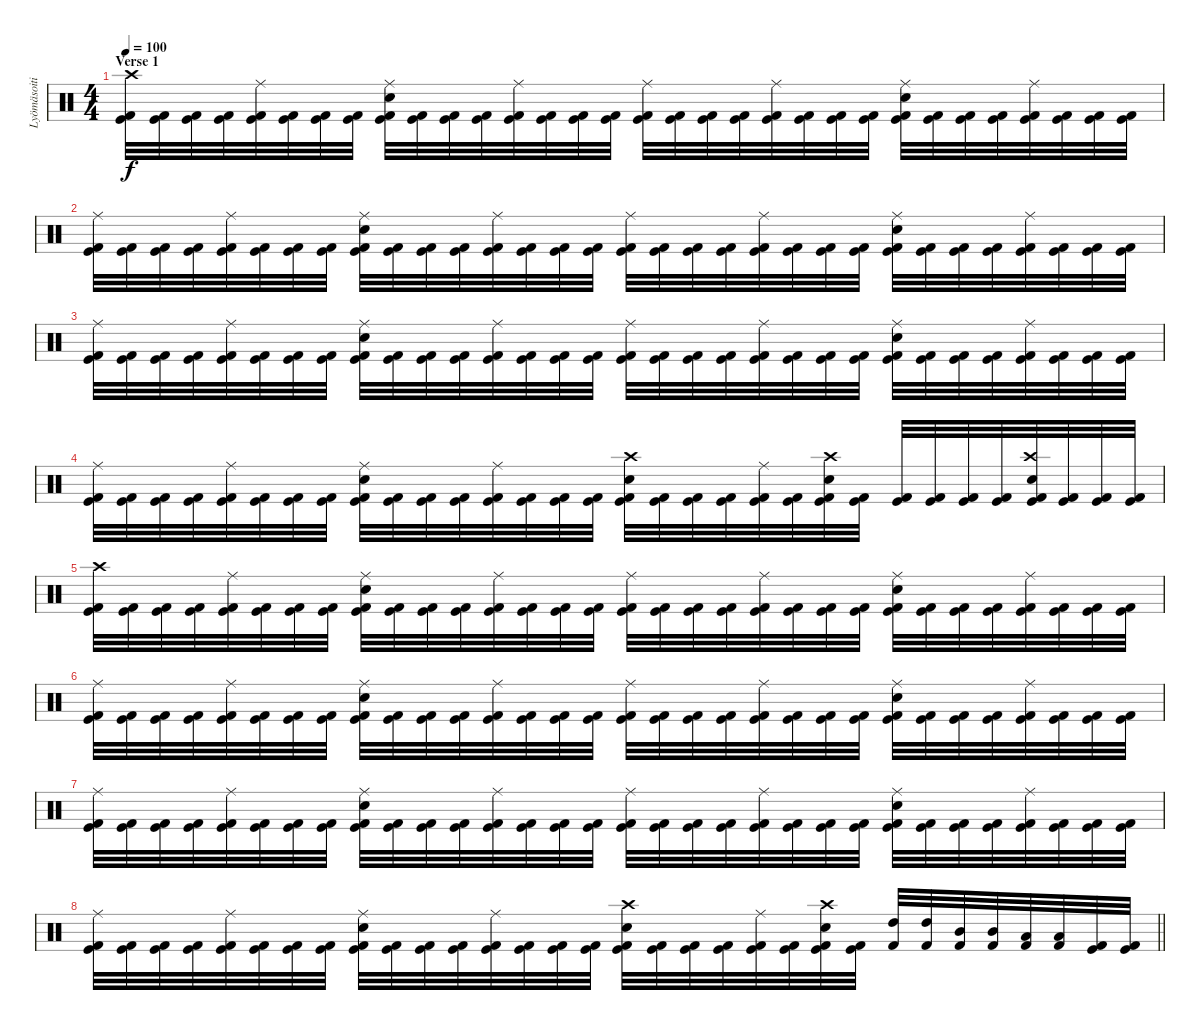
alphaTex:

\track ("Lyömäsoitin" "Lyömäsoiti") {instrument percussion}
\staff {score}
\articulation defaults
\ts (4 4)
\section ("" "Verse 1")
\tempo 100
\clef neutral
\ks c
("Kick (hit) 2" "Crash high (hit)" "Kick (hit)").32{dy f} ("Kick (hit) 2" "Kick (hit)").32 ("Kick (hit) 2" "Kick (hit)").32 ("Kick (hit) 2" "Kick (hit)").32 ("Kick (hit) 2" "Ride (middle)" "Kick (hit)").32 ("Kick (hit) 2" "Kick (hit)").32 ("Kick (hit) 2" "Kick (hit)").32 ("Kick (hit) 2" "Kick (hit)").32 ("Kick (hit) 2" "Ride (middle)" "Electric Snare (hit)" "Kick (hit)").32 ("Kick (hit) 2" "Kick (hit)").32 ("Kick (hit) 2" "Kick (hit)").32 ("Kick (hit) 2" "Kick (hit)").32 ("Kick (hit) 2" "Ride (middle)" "Kick (hit)").32 ("Kick (hit) 2" "Kick (hit)").32 ("Kick (hit) 2" "Kick (hit)").32 ("Kick (hit) 2" "Kick (hit)").32 ("Kick (hit) 2" "Ride (middle)" "Kick (hit)").32 ("Kick (hit) 2" "Kick (hit)").32 ("Kick (hit) 2" "Kick (hit)").32 ("Kick (hit) 2" "Kick (hit)").32 ("Kick (hit) 2" "Ride (middle)" "Kick (hit)").32 ("Kick (hit) 2" "Kick (hit)").32 ("Kick (hit) 2" "Kick (hit)").32 ("Kick (hit) 2" "Kick (hit)").32 ("Kick (hit) 2" "Ride (middle)" "Electric Snare (hit)" "Kick (hit)").32 ("Kick (hit) 2" "Kick (hit)").32 ("Kick (hit) 2" "Kick (hit)").32 ("Kick (hit) 2" "Kick (hit)").32 ("Kick (hit) 2" "Ride (middle)" "Kick (hit)").32 ("Kick (hit) 2" "Kick (hit)").32 ("Kick (hit) 2" "Kick (hit)").32 ("Kick (hit) 2" "Kick (hit)").32 |
("Kick (hit) 2" "Ride (middle)" "Kick (hit)").32 ("Kick (hit) 2" "Kick (hit)").32 ("Kick (hit) 2" "Kick (hit)").32 ("Kick (hit) 2" "Kick (hit)").32 ("Kick (hit) 2" "Ride (middle)" "Kick (hit)").32 ("Kick (hit) 2" "Kick (hit)").32 ("Kick (hit) 2" "Kick (hit)").32 ("Kick (hit) 2" "Kick (hit)").32 ("Kick (hit) 2" "Ride (middle)" "Electric Snare (hit)" "Kick (hit)").32 ("Kick (hit) 2" "Kick (hit)").32 ("Kick (hit) 2" "Kick (hit)").32 ("Kick (hit) 2" "Kick (hit)").32 ("Kick (hit) 2" "Ride (middle)" "Kick (hit)").32 ("Kick (hit) 2" "Kick (hit)").32 ("Kick (hit) 2" "Kick (hit)").32 ("Kick (hit) 2" "Kick (hit)").32 ("Kick (hit) 2" "Ride (middle)" "Kick (hit)").32 ("Kick (hit) 2" "Kick (hit)").32 ("Kick (hit) 2" "Kick (hit)").32 ("Kick (hit) 2" "Kick (hit)").32 ("Kick (hit) 2" "Ride (middle)" "Kick (hit)").32 ("Kick (hit) 2" "Kick (hit)").32 ("Kick (hit) 2" "Kick (hit)").32 ("Kick (hit) 2" "Kick (hit)").32 ("Kick (hit) 2" "Ride (middle)" "Electric Snare (hit)" "Kick (hit)").32 ("Kick (hit) 2" "Kick (hit)").32 ("Kick (hit) 2" "Kick (hit)").32 ("Kick (hit) 2" "Kick (hit)").32 ("Kick (hit) 2" "Ride (middle)" "Kick (hit)").32 ("Kick (hit) 2" "Kick (hit)").32 ("Kick (hit) 2" "Kick (hit)").32 ("Kick (hit) 2" "Kick (hit)").32 |
("Kick (hit) 2" "Ride (middle)" "Kick (hit)").32 ("Kick (hit) 2" "Kick (hit)").32 ("Kick (hit) 2" "Kick (hit)").32 ("Kick (hit) 2" "Kick (hit)").32 ("Kick (hit) 2" "Ride (middle)" "Kick (hit)").32 ("Kick (hit) 2" "Kick (hit)").32 ("Kick (hit) 2" "Kick (hit)").32 ("Kick (hit) 2" "Kick (hit)").32 ("Kick (hit) 2" "Ride (middle)" "Electric Snare (hit)" "Kick (hit)").32 ("Kick (hit) 2" "Kick (hit)").32 ("Kick (hit) 2" "Kick (hit)").32 ("Kick (hit) 2" "Kick (hit)").32 ("Kick (hit) 2" "Ride (middle)" "Kick (hit)").32 ("Kick (hit) 2" "Kick (hit)").32 ("Kick (hit) 2" "Kick (hit)").32 ("Kick (hit) 2" "Kick (hit)").32 ("Kick (hit) 2" "Ride (middle)" "Kick (hit)").32 ("Kick (hit) 2" "Kick (hit)").32 ("Kick (hit) 2" "Kick (hit)").32 ("Kick (hit) 2" "Kick (hit)").32 ("Kick (hit) 2" "Ride (middle)" "Kick (hit)").32 ("Kick (hit) 2" "Kick (hit)").32 ("Kick (hit) 2" "Kick (hit)").32 ("Kick (hit) 2" "Kick (hit)").32 ("Kick (hit) 2" "Ride (middle)" "Electric Snare (hit)" "Kick (hit)").32 ("Kick (hit) 2" "Kick (hit)").32 ("Kick (hit) 2" "Kick (hit)").32 ("Kick (hit) 2" "Kick (hit)").32 ("Kick (hit) 2" "Ride (middle)" "Kick (hit)").32 ("Kick (hit) 2" "Kick (hit)").32 ("Kick (hit) 2" "Kick (hit)").32 ("Kick (hit) 2" "Kick (hit)").32 |
("Kick (hit) 2" "Ride (middle)" "Kick (hit)").32 ("Kick (hit) 2" "Kick (hit)").32 ("Kick (hit) 2" "Kick (hit)").32 ("Kick (hit) 2" "Kick (hit)").32 ("Kick (hit) 2" "Ride (middle)" "Kick (hit)").32 ("Kick (hit) 2" "Kick (hit)").32 ("Kick (hit) 2" "Kick (hit)").32 ("Kick (hit) 2" "Kick (hit)").32 ("Kick (hit) 2" "Ride (middle)" "Electric Snare (hit)" "Kick (hit)").32 ("Kick (hit) 2" "Kick (hit)").32 ("Kick (hit) 2" "Kick (hit)").32 ("Kick (hit) 2" "Kick (hit)").32 ("Kick (hit) 2" "Ride (middle)" "Kick (hit)").32 ("Kick (hit) 2" "Kick (hit)").32 ("Kick (hit) 2" "Kick (hit)").32 ("Kick (hit) 2" "Kick (hit)").32 ("Kick (hit) 2" "Crash high (hit)" "Electric Snare (hit)" "Kick (hit)").32 ("Kick (hit) 2" "Kick (hit)").32 ("Kick (hit) 2" "Kick (hit)").32 ("Kick (hit) 2" "Kick (hit)").32 ("Kick (hit) 2" "Ride (middle)" "Kick (hit)").32 ("Kick (hit) 2" "Kick (hit)").32 ("Kick (hit) 2" "Crash high (hit)" "Electric Snare (hit)" "Kick (hit)").32 ("Kick (hit) 2" "Kick (hit)").32 ("Kick (hit) 2" "Kick (hit)").32 ("Kick (hit) 2" "Kick (hit)").32 ("Kick (hit) 2" "Kick (hit)").32 ("Kick (hit) 2" "Kick (hit)").32 ("Kick (hit) 2" "Electric Snare (hit)" "Crash high (hit)" "Kick (hit)").32 ("Kick (hit) 2" "Kick (hit)").32 ("Kick (hit) 2" "Kick (hit)").32 ("Kick (hit) 2" "Kick (hit)").32 |
("Kick (hit) 2" "Crash high (hit)" "Kick (hit)").32 ("Kick (hit) 2" "Kick (hit)").32 ("Kick (hit) 2" "Kick (hit)").32 ("Kick (hit) 2" "Kick (hit)").32 ("Kick (hit) 2" "Ride (middle)" "Kick (hit)").32 ("Kick (hit) 2" "Kick (hit)").32 ("Kick (hit) 2" "Kick (hit)").32 ("Kick (hit) 2" "Kick (hit)").32 ("Kick (hit) 2" "Ride (middle)" "Electric Snare (hit)" "Kick (hit)").32 ("Kick (hit) 2" "Kick (hit)").32 ("Kick (hit) 2" "Kick (hit)").32 ("Kick (hit) 2" "Kick (hit)").32 ("Kick (hit) 2" "Ride (middle)" "Kick (hit)").32 ("Kick (hit) 2" "Kick (hit)").32 ("Kick (hit) 2" "Kick (hit)").32 ("Kick (hit) 2" "Kick (hit)").32 ("Kick (hit) 2" "Ride (middle)" "Kick (hit)").32 ("Kick (hit) 2" "Kick (hit)").32 ("Kick (hit) 2" "Kick (hit)").32 ("Kick (hit) 2" "Kick (hit)").32 ("Kick (hit) 2" "Ride (middle)" "Kick (hit)").32 ("Kick (hit) 2" "Kick (hit)").32 ("Kick (hit) 2" "Kick (hit)").32 ("Kick (hit) 2" "Kick (hit)").32 ("Kick (hit) 2" "Ride (middle)" "Electric Snare (hit)" "Kick (hit)").32 ("Kick (hit) 2" "Kick (hit)").32 ("Kick (hit) 2" "Kick (hit)").32 ("Kick (hit) 2" "Kick (hit)").32 ("Kick (hit) 2" "Ride (middle)" "Kick (hit)").32 ("Kick (hit) 2" "Kick (hit)").32 ("Kick (hit) 2" "Kick (hit)").32 ("Kick (hit) 2" "Kick (hit)").32 |
("Kick (hit) 2" "Ride (middle)" "Kick (hit)").32 ("Kick (hit) 2" "Kick (hit)").32 ("Kick (hit) 2" "Kick (hit)").32 ("Kick (hit) 2" "Kick (hit)").32 ("Kick (hit) 2" "Ride (middle)" "Kick (hit)").32 ("Kick (hit) 2" "Kick (hit)").32 ("Kick (hit) 2" "Kick (hit)").32 ("Kick (hit) 2" "Kick (hit)").32 ("Kick (hit) 2" "Ride (middle)" "Electric Snare (hit)" "Kick (hit)").32 ("Kick (hit) 2" "Kick (hit)").32 ("Kick (hit) 2" "Kick (hit)").32 ("Kick (hit) 2" "Kick (hit)").32 ("Kick (hit) 2" "Ride (middle)" "Kick (hit)").32 ("Kick (hit) 2" "Kick (hit)").32 ("Kick (hit) 2" "Kick (hit)").32 ("Kick (hit) 2" "Kick (hit)").32 ("Kick (hit) 2" "Ride (middle)" "Kick (hit)").32 ("Kick (hit) 2" "Kick (hit)").32 ("Kick (hit) 2" "Kick (hit)").32 ("Kick (hit) 2" "Kick (hit)").32 ("Kick (hit) 2" "Ride (middle)" "Kick (hit)").32 ("Kick (hit) 2" "Kick (hit)").32 ("Kick (hit) 2" "Kick (hit)").32 ("Kick (hit) 2" "Kick (hit)").32 ("Kick (hit) 2" "Ride (middle)" "Electric Snare (hit)" "Kick (hit)").32 ("Kick (hit) 2" "Kick (hit)").32 ("Kick (hit) 2" "Kick (hit)").32 ("Kick (hit) 2" "Kick (hit)").32 ("Kick (hit) 2" "Ride (middle)" "Kick (hit)").32 ("Kick (hit) 2" "Kick (hit)").32 ("Kick (hit) 2" "Kick (hit)").32 ("Kick (hit) 2" "Kick (hit)").32 |
("Kick (hit) 2" "Ride (middle)" "Kick (hit)").32 ("Kick (hit) 2" "Kick (hit)").32 ("Kick (hit) 2" "Kick (hit)").32 ("Kick (hit) 2" "Kick (hit)").32 ("Kick (hit) 2" "Ride (middle)" "Kick (hit)").32 ("Kick (hit) 2" "Kick (hit)").32 ("Kick (hit) 2" "Kick (hit)").32 ("Kick (hit) 2" "Kick (hit)").32 ("Kick (hit) 2" "Ride (middle)" "Electric Snare (hit)" "Kick (hit)").32 ("Kick (hit) 2" "Kick (hit)").32 ("Kick (hit) 2" "Kick (hit)").32 ("Kick (hit) 2" "Kick (hit)").32 ("Kick (hit) 2" "Ride (middle)" "Kick (hit)").32 ("Kick (hit) 2" "Kick (hit)").32 ("Kick (hit) 2" "Kick (hit)").32 ("Kick (hit) 2" "Kick (hit)").32 ("Kick (hit) 2" "Ride (middle)" "Kick (hit)").32 ("Kick (hit) 2" "Kick (hit)").32 ("Kick (hit) 2" "Kick (hit)").32 ("Kick (hit) 2" "Kick (hit)").32 ("Kick (hit) 2" "Ride (middle)" "Kick (hit)").32 ("Kick (hit) 2" "Kick (hit)").32 ("Kick (hit) 2" "Kick (hit)").32 ("Kick (hit) 2" "Kick (hit)").32 ("Kick (hit) 2" "Ride (middle)" "Electric Snare (hit)" "Kick (hit)").32 ("Kick (hit) 2" "Kick (hit)").32 ("Kick (hit) 2" "Kick (hit)").32 ("Kick (hit) 2" "Kick (hit)").32 ("Kick (hit) 2" "Ride (middle)" "Kick (hit)").32 ("Kick (hit) 2" "Kick (hit)").32 ("Kick (hit) 2" "Kick (hit)").32 ("Kick (hit) 2" "Kick (hit)").32 |
\barLineRight lightlight
("Kick (hit) 2" "Ride (middle)" "Kick (hit)").32 ("Kick (hit) 2" "Kick (hit)").32 ("Kick (hit) 2" "Kick (hit)").32 ("Kick (hit) 2" "Kick (hit)").32 ("Kick (hit) 2" "Ride (middle)" "Kick (hit)").32 ("Kick (hit) 2" "Kick (hit)").32 ("Kick (hit) 2" "Kick (hit)").32 ("Kick (hit) 2" "Kick (hit)").32 ("Kick (hit) 2" "Ride (middle)" "Electric Snare (hit)" "Kick (hit)").32 ("Kick (hit) 2" "Kick (hit)").32 ("Kick (hit) 2" "Kick (hit)").32 ("Kick (hit) 2" "Kick (hit)").32 ("Kick (hit) 2" "Ride (middle)" "Kick (hit)").32 ("Kick (hit) 2" "Kick (hit)").32 ("Kick (hit) 2" "Kick (hit)").32 ("Kick (hit) 2" "Kick (hit)").32 ("Kick (hit) 2" "Crash high (hit)" "Electric Snare (hit)" "Kick (hit)").32 ("Kick (hit) 2" "Kick (hit)").32 ("Kick (hit) 2" "Kick (hit)").32 ("Kick (hit) 2" "Kick (hit)").32 ("Kick (hit) 2" "Ride (middle)" "Kick (hit)").32 ("Kick (hit) 2" "Kick (hit)").32 ("Kick (hit) 2" "Crash high (hit)" "Electric Snare (hit)" "Kick (hit)").32 ("Kick (hit) 2" "Kick (hit)").32 ("Kick (hit) 2" "High Tom (hit)").32 ("Kick (hit) 2" "High Tom (hit)").32 ("Kick (hit) 2" "Mid Tom (hit)").32 ("Kick (hit) 2" "Mid Tom (hit)").32 ("Kick (hit) 2" "Low Tom (hit)").32 ("Kick (hit) 2" "Low Tom (hit)").32 ("Kick (hit) 2" "Kick (hit)").32 ("Kick (hit) 2" "Kick (hit)").32
